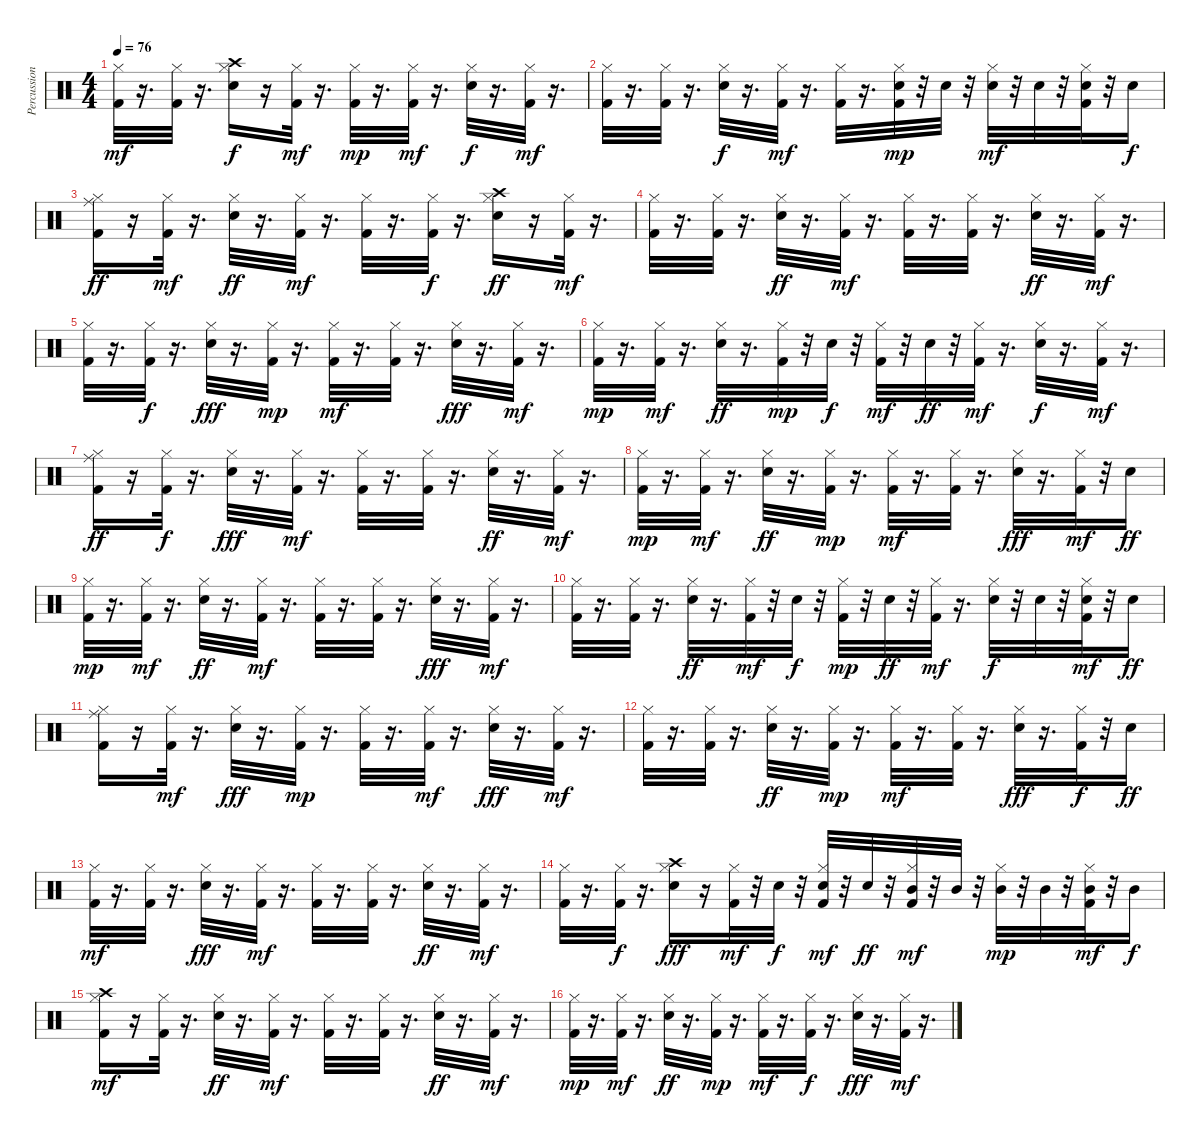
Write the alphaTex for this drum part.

\track ("Percussion Fill" "Percussion") {instrument percussion}
\staff {score}
\articulation defaults
\ts (4 4)
\tempo 76
\clef neutral
\ks c
("Kick (hit) 2" "Hi-Hat (closed)").32{dy mf} r.16{d} ("Kick (hit) 2" "Hi-Hat (closed)").32 r.16{d} ("Snare (hit) 2" "Hi-Hat (closed)" "Crash high (hit)").16{dy f} r.16 ("Kick (hit) 2" "Hi-Hat (closed)").32{dy mf} r.16{d} ("Kick (hit) 2" "Hi-Hat (closed)").32{dy mp} r.16{d} ("Kick (hit) 2" "Hi-Hat (closed)").32{dy mf} r.16{d} ("Snare (hit) 2" "Hi-Hat (closed)").32{dy f} r.16{d} ("Kick (hit) 2" "Hi-Hat (closed)").32{dy mf} r.16{d} |
("Kick (hit) 2" "Hi-Hat (closed)").32 r.16{d} ("Kick (hit) 2" "Hi-Hat (closed)").32 r.16{d} ("Snare (hit) 2" "Hi-Hat (closed)").32{dy f} r.16{d} ("Kick (hit) 2" "Hi-Hat (closed)").32{dy mf} r.16{d} ("Kick (hit) 2" "Hi-Hat (closed)").32 r.16{d} ("Kick (hit) 2" "Snare (hit) 2" "Hi-Hat (closed)").32{dy mp} r.32 "Snare (hit) 2".32 r.32 ("Snare (hit) 2" "Hi-Hat (closed)").32{dy mf} r.32 "Snare (hit) 2".32 r.32 ("Kick (hit) 2" "Snare (hit) 2" "Hi-Hat (closed)").32 r.32 "Snare (hit) 2".16{dy f} |
("Kick (hit) 2" "Hi-Hat (closed)" "Ride (middle)").16{dy ff} r.16 ("Kick (hit) 2" "Hi-Hat (closed)").32{dy mf} r.16{d} ("Snare (hit) 2" "Hi-Hat (closed)").32{dy ff} r.16{d} ("Kick (hit) 2" "Hi-Hat (closed)").32{dy mf} r.16{d} ("Kick (hit) 2" "Hi-Hat (closed)").32 r.16{d} ("Kick (hit) 2" "Hi-Hat (closed)").32{dy f} r.16{d} ("Snare (hit) 2" "Hi-Hat (closed)" "Crash high (hit)").16{dy ff} r.16 ("Kick (hit) 2" "Hi-Hat (closed)").32{dy mf} r.16{d} |
("Kick (hit) 2" "Hi-Hat (closed)").32 r.16{d} ("Kick (hit) 2" "Hi-Hat (closed)").32 r.16{d} ("Snare (hit) 2" "Hi-Hat (closed)").32{dy ff} r.16{d} ("Kick (hit) 2" "Hi-Hat (closed)").32{dy mf} r.16{d} ("Kick (hit) 2" "Hi-Hat (closed)").32 r.16{d} ("Kick (hit) 2" "Hi-Hat (closed)").32 r.16{d} ("Snare (hit) 2" "Hi-Hat (closed)").32{dy ff} r.16{d} ("Kick (hit) 2" "Hi-Hat (closed)").32{dy mf} r.16{d} |
("Kick (hit) 2" "Hi-Hat (closed)").32 r.16{d} ("Kick (hit) 2" "Hi-Hat (closed)").32{dy f} r.16{d} ("Snare (hit) 2" "Hi-Hat (closed)").32{dy fff} r.16{d} ("Kick (hit) 2" "Hi-Hat (closed)").32{dy mp} r.16{d} ("Kick (hit) 2" "Hi-Hat (closed)").32{dy mf} r.16{d} ("Kick (hit) 2" "Hi-Hat (closed)").32 r.16{d} ("Snare (hit) 2" "Hi-Hat (closed)").32{dy fff} r.16{d} ("Kick (hit) 2" "Hi-Hat (closed)").32{dy mf} r.16{d} |
("Kick (hit) 2" "Hi-Hat (closed)").32{dy mp} r.16{d} ("Kick (hit) 2" "Hi-Hat (closed)").32{dy mf} r.16{d} ("Snare (hit) 2" "Hi-Hat (closed)").32{dy ff} r.16{d} ("Kick (hit) 2" "Hi-Hat (closed)").32{dy mp} r.32 "Snare (hit) 2".32{dy f} r.32 ("Kick (hit) 2" "Hi-Hat (closed)").32{dy mf} r.32 "Snare (hit) 2".32{dy ff} r.32 ("Kick (hit) 2" "Hi-Hat (closed)").32{dy mf} r.16{d} ("Snare (hit) 2" "Hi-Hat (closed)").32{dy f} r.16{d} ("Kick (hit) 2" "Hi-Hat (closed)").32{dy mf} r.16{d} |
("Kick (hit) 2" "Hi-Hat (closed)" "Ride (middle)").16{dy ff} r.16 ("Kick (hit) 2" "Hi-Hat (closed)").32{dy f} r.16{d} ("Snare (hit) 2" "Hi-Hat (closed)").32{dy fff} r.16{d} ("Kick (hit) 2" "Hi-Hat (closed)").32{dy mf} r.16{d} ("Kick (hit) 2" "Hi-Hat (closed)").32 r.16{d} ("Kick (hit) 2" "Hi-Hat (closed)").32 r.16{d} ("Snare (hit) 2" "Hi-Hat (closed)").32{dy ff} r.16{d} ("Kick (hit) 2" "Hi-Hat (closed)").32{dy mf} r.16{d} |
("Kick (hit) 2" "Hi-Hat (closed)").32{dy mp} r.16{d} ("Kick (hit) 2" "Hi-Hat (closed)").32{dy mf} r.16{d} ("Snare (hit) 2" "Hi-Hat (closed)").32{dy ff} r.16{d} ("Kick (hit) 2" "Hi-Hat (closed)").32{dy mp} r.16{d} ("Kick (hit) 2" "Hi-Hat (closed)").32{dy mf} r.16{d} ("Kick (hit) 2" "Hi-Hat (closed)").32 r.16{d} ("Snare (hit) 2" "Hi-Hat (closed)").32{dy fff} r.16{d} ("Kick (hit) 2" "Hi-Hat (closed)").32{dy mf} r.32 "Snare (hit) 2".16{dy ff} |
("Kick (hit) 2" "Hi-Hat (closed)").32{dy mp} r.16{d} ("Kick (hit) 2" "Hi-Hat (closed)").32{dy mf} r.16{d} ("Snare (hit) 2" "Hi-Hat (closed)").32{dy ff} r.16{d} ("Kick (hit) 2" "Hi-Hat (closed)").32{dy mf} r.16{d} ("Kick (hit) 2" "Hi-Hat (closed)").32 r.16{d} ("Kick (hit) 2" "Hi-Hat (closed)").32 r.16{d} ("Snare (hit) 2" "Hi-Hat (closed)").32{dy fff} r.16{d} ("Kick (hit) 2" "Hi-Hat (closed)").32{dy mf} r.16{d} |
("Kick (hit) 2" "Hi-Hat (closed)").32 r.16{d} ("Kick (hit) 2" "Hi-Hat (closed)").32 r.16{d} ("Snare (hit) 2" "Hi-Hat (closed)").32{dy ff} r.16{d} ("Kick (hit) 2" "Hi-Hat (closed)").32{dy mf} r.32 "Snare (hit) 2".32{dy f} r.32 ("Kick (hit) 2" "Hi-Hat (closed)").32{dy mp} r.32 "Snare (hit) 2".32{dy ff} r.32 ("Kick (hit) 2" "Hi-Hat (closed)").32{dy mf} r.16{d} ("Snare (hit) 2" "Hi-Hat (closed)").32{dy f} r.32 "Snare (hit) 2".32 r.32 ("Kick (hit) 2" "Snare (hit) 2" "Hi-Hat (closed)").32{dy mf} r.32 "Snare (hit) 2".16{dy ff} |
("Kick (hit) 2" "Hi-Hat (closed)" "Ride (middle)").16 r.16 ("Kick (hit) 2" "Hi-Hat (closed)").32{dy mf} r.16{d} ("Snare (hit) 2" "Hi-Hat (closed)").32{dy fff} r.16{d} ("Kick (hit) 2" "Hi-Hat (closed)").32{dy mp} r.16{d} ("Kick (hit) 2" "Hi-Hat (closed)").32 r.16{d} ("Kick (hit) 2" "Hi-Hat (closed)").32{dy mf} r.16{d} ("Snare (hit) 2" "Hi-Hat (closed)").32{dy fff} r.16{d} ("Kick (hit) 2" "Hi-Hat (closed)").32{dy mf} r.16{d} |
("Kick (hit) 2" "Hi-Hat (closed)").32 r.16{d} ("Kick (hit) 2" "Hi-Hat (closed)").32 r.16{d} ("Snare (hit) 2" "Hi-Hat (closed)").32{dy ff} r.16{d} ("Kick (hit) 2" "Hi-Hat (closed)").32{dy mp} r.16{d} ("Kick (hit) 2" "Hi-Hat (closed)").32{dy mf} r.16{d} ("Kick (hit) 2" "Hi-Hat (closed)").32 r.16{d} ("Snare (hit) 2" "Hi-Hat (closed)").32{dy fff} r.16{d} ("Kick (hit) 2" "Hi-Hat (closed)").32{dy f} r.32 "Snare (hit) 2".16{dy ff} |
("Kick (hit) 2" "Hi-Hat (closed)").32{dy mf} r.16{d} ("Kick (hit) 2" "Hi-Hat (closed)").32 r.16{d} ("Snare (hit) 2" "Hi-Hat (closed)").32{dy fff} r.16{d} ("Kick (hit) 2" "Hi-Hat (closed)").32{dy mf} r.16{d} ("Kick (hit) 2" "Hi-Hat (closed)").32 r.16{d} ("Kick (hit) 2" "Hi-Hat (closed)").32 r.16{d} ("Snare (hit) 2" "Hi-Hat (closed)").32{dy ff} r.16{d} ("Kick (hit) 2" "Hi-Hat (closed)").32{dy mf} r.16{d} |
("Kick (hit) 2" "Hi-Hat (closed)").32 r.16{d} ("Kick (hit) 2" "Hi-Hat (closed)").32{dy f} r.16{d} ("Snare (hit) 2" "Hi-Hat (closed)" "Crash high (hit)").16{dy fff} r.16 ("Kick (hit) 2" "Hi-Hat (closed)").32{dy mf} r.32 "Snare (hit) 2".32{dy f} r.32 ("Kick (hit) 2" "Snare (hit) 2" "Hi-Hat (closed)").32{dy mf} r.32 "Snare (hit) 2".32{dy ff} r.32 ("Kick (hit) 2" "Hi-Hat (closed)" "Mid Tom (hit)").32{dy mf} r.32 "Mid Tom (hit)".32 r.32 ("Hi-Hat (closed)" "Mid Tom (hit)").32{dy mp} r.32 "Mid Tom (hit)".32 r.32 ("Kick (hit) 2" "Hi-Hat (closed)" "Mid Tom (hit)").32{dy mf} r.32 "Mid Tom (hit)".16{dy f} |
("Kick (hit) 2" "Hi-Hat (closed)" "Crash high (hit)").16{dy mf} r.16 ("Kick (hit) 2" "Hi-Hat (closed)").32 r.16{d} ("Snare (hit) 2" "Hi-Hat (closed)").32{dy ff} r.16{d} ("Kick (hit) 2" "Hi-Hat (closed)").32{dy mf} r.16{d} ("Kick (hit) 2" "Hi-Hat (closed)").32 r.16{d} ("Kick (hit) 2" "Hi-Hat (closed)").32 r.16{d} ("Snare (hit) 2" "Hi-Hat (closed)").32{dy ff} r.16{d} ("Kick (hit) 2" "Hi-Hat (closed)").32{dy mf} r.16{d} |
("Kick (hit) 2" "Hi-Hat (closed)").32{dy mp} r.16{d} ("Kick (hit) 2" "Hi-Hat (closed)").32{dy mf} r.16{d} ("Snare (hit) 2" "Hi-Hat (closed)").32{dy ff} r.16{d} ("Kick (hit) 2" "Hi-Hat (closed)").32{dy mp} r.16{d} ("Kick (hit) 2" "Hi-Hat (closed)").32{dy mf} r.16{d} ("Kick (hit) 2" "Hi-Hat (closed)").32{dy f} r.16{d} ("Snare (hit) 2" "Hi-Hat (closed)").32{dy fff} r.16{d} ("Kick (hit) 2" "Hi-Hat (closed)").32{dy mf} r.16{d}
